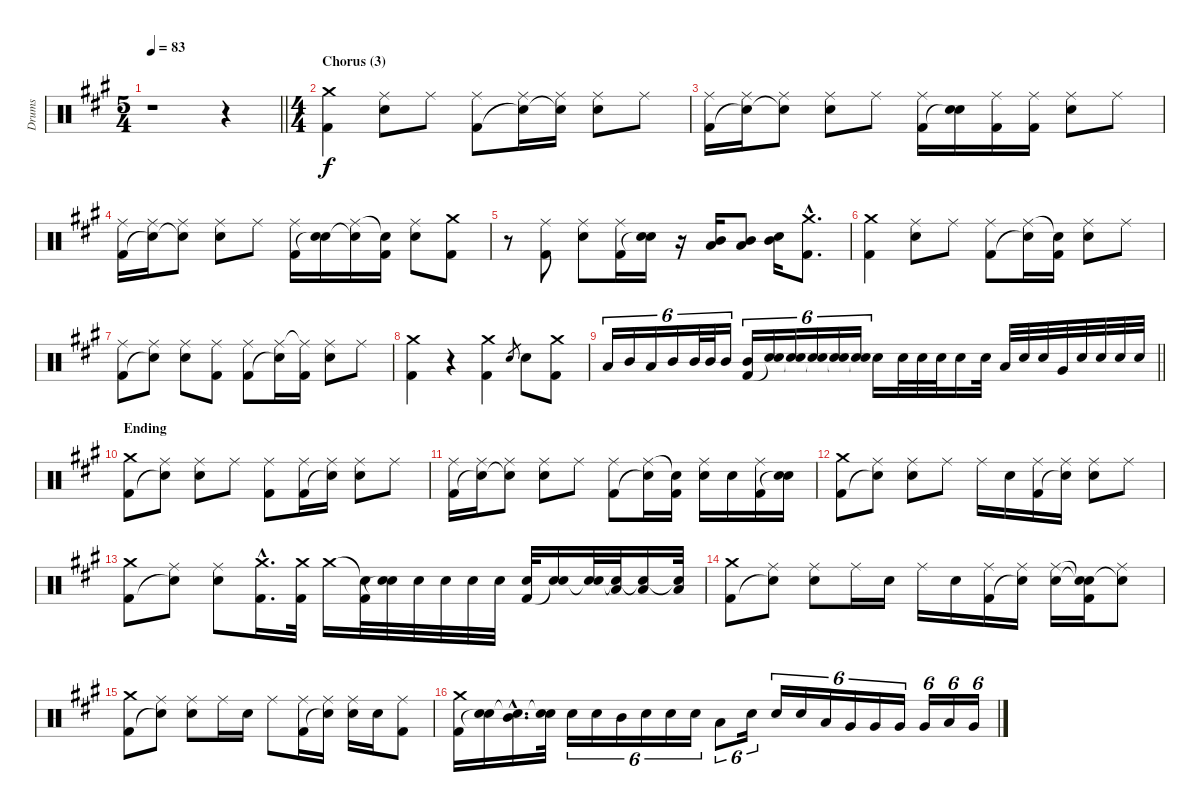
\track ("Drums" "Drums") {instrument percussion}
\staff {score}
\articulation defaults
\ts (5 4)
\tempo 83
\clef neutral
\barLineRight lightlight
\ks f#minor
r.1{dy f} r.4 |
\ts (4 4)
\section ("" "Chorus (3)")
("Crash medium (hit)" "Kick (hit) 2").4 ("Ride (middle)" "Electric Snare (hit)").8 "Ride (middle)".8 ("Ride (middle)" "Kick (hit) 2").8 ("Ride (middle)" "Snare (hit)"{t}).16 ("Ride (middle)" "Snare (hit)"{t}).16 ("Ride (middle)" "Electric Snare (hit)").8 "Ride (middle)".8 |
("Ride (middle)" "Kick (hit) 2").16 ("Ride (middle)" "Snare (hit)"{t}).16 ("Ride (middle)" "Snare (hit)"{t}).8 ("Ride (middle)" "Electric Snare (hit)").8 "Ride (middle)".8 ("Ride (middle)" "Kick (hit) 2").16 ("Electric Snare (hit)" "Snare (hit)"{t}).16 ("Ride (middle)" "Kick (hit) 2").16 ("Ride (middle)" "Kick (hit) 2").16 ("Ride (middle)" "Electric Snare (hit)").8 "Ride (middle)".8 |
("Ride (middle)" "Kick (hit) 2").16 ("Ride (middle)" "Snare (hit)"{t}).16 ("Ride (middle)" "Snare (hit)"{t}).8 ("Ride (middle)" "Electric Snare (hit)").8 "Ride (middle)".8 ("Ride (middle)" "Kick (hit) 2").16 ("Electric Snare (hit)" "Snare (hit)"{t}).16 ("Ride (middle)" "Snare (hit)"{t}).16 ("Snare (hit)"{t} "Kick (hit) 2").16 ("Ride (middle)" "Electric Snare (hit)").8 ("Crash medium (hit)" "Kick (hit) 2").8 |
r.8 ("Ride (middle)" "Kick (hit) 2").8 ("Ride (middle)" "Electric Snare (hit)").8 ("Ride (middle)" "Kick (hit) 2").16 ("Electric Snare (hit)" "Snare (hit)"{t}).16 r.16 ("Mid Tom (hit)" "Low Tom (hit)").16 ("Mid Tom (hit)" "Low Tom (hit)").8 ("Electric Snare (hit)" "Mid Tom (hit)").16 ("Crash medium (hit)"{hac} "Kick (hit) 2"{hac}).8{d} |
("Crash medium (hit)" "Kick (hit) 2").4 ("Ride (middle)" "Electric Snare (hit)").8 "Ride (middle)".8 ("Ride (middle)" "Kick (hit) 2").8 ("Ride (middle)" "Snare (hit)"{t}).16 ("Snare (hit)"{t} "Kick (hit) 2").16 ("Ride (middle)" "Electric Snare (hit)").8 "Ride (middle)".8 |
("Ride (middle)" "Kick (hit) 2").8 ("Ride (middle)" "Snare (hit)"{t}).8 ("Ride (middle)" "Electric Snare (hit)").8 ("Ride (middle)" "Kick (hit) 2").8 ("Ride (middle)" "Kick (hit) 2").8 ("Ride (middle)" "Snare (hit)"{t}).16 ("Ride (middle)"{t} "Kick (hit) 2").16 ("Ride (middle)" "Electric Snare (hit)").8 "Ride (middle)".8 |
("Crash medium (hit)" "Kick (hit) 2").4 r.4 ("Crash medium (hit)" "Kick (hit) 2").4 "Electric Snare (hit)".8{gr} "Electric Snare (hit)".8 ("Crash medium (hit)" "Kick (hit) 2").8 |
\barLineRight lightlight "Low Tom (hit)".16{tu (6 4)} "Mid Tom (hit)".16{tu (6 4)} "Low Tom (hit)".16{tu (6 4)} "Mid Tom (hit)".16{tu (6 4)} "Mid Tom (hit)".32{tu (6 4)} "Mid Tom (hit)".32{tu (6 4)} "Mid Tom (hit)".16{tu (6 4)}
("Mid Tom (hit)" "Kick (hit) 2").16{tu (6 4)} ("Electric Snare (hit)" "Snare (hit)"{t}).16{tu (6 4)} ("Electric Snare (hit)" "Snare (hit)"{t}).16{tu (6 4)} ("Electric Snare (hit)" "Snare (hit)"{t}).16{tu (6 4)} ("Electric Snare (hit)" "Snare (hit)"{t}).16{tu (6 4)} ("Electric Snare (hit)" "Snare (hit)"{t}).16{tu (6 4)} "Electric Snare (hit)".16 "Electric Snare (hit)".32 "Electric Snare (hit)".32 "Electric Snare (hit)".32 "Electric Snare (hit)".16 "Electric Snare (hit)".32 "Low Tom (hit)".32 "Electric Snare (hit)".32 "Electric Snare (hit)".32 "Very Low Tom (hit)".32 "Electric Snare (hit)".32 "Electric Snare (hit)".32 "Electric Snare (hit)".32 "Electric Snare (hit)".32 |
\section ("" "Ending")
("Crash medium (hit)" "Kick (hit) 2").8 ("Ride (middle)" "Snare (hit)"{t}).8 ("Ride (middle)" "Electric Snare (hit)").8 "Ride (middle)".8 ("Ride (middle)" "Kick (hit) 2").8 ("Ride (middle)" "Kick (hit) 2").16 ("Ride (middle)" "Snare (hit)"{t}).16 ("Ride (middle)" "Electric Snare (hit)").8 "Ride (middle)".8 |
("Ride (middle)" "Kick (hit) 2").16 ("Ride (middle)" "Snare (hit)"{t}).16 ("Ride (middle)" "Snare (hit)"{t}).8 ("Ride (middle)" "Electric Snare (hit)").8 "Ride (middle)".8 ("Ride (middle)" "Kick (hit) 2").8 ("Ride (middle)" "Snare (hit)"{t}).16 ("Snare (hit)"{t} "Kick (hit) 2").16 ("Ride (middle)" "Electric Snare (hit)").16 "Electric Snare (hit)".16 ("Ride (middle)" "Kick (hit) 2").16 ("Electric Snare (hit)" "Snare (hit)"{t}).16 |
("Crash medium (hit)" "Kick (hit) 2").8 ("Ride (middle)" "Snare (hit)"{t}).8 ("Ride (middle)" "Electric Snare (hit)").8 "Ride (middle)".8 "Ride (middle)".16 "Electric Snare (hit)".16 ("Ride (middle)" "Kick (hit) 2").16 ("Ride (middle)" "Snare (hit)"{t}).16 ("Ride (middle)" "Electric Snare (hit)").8 "Ride (middle)".8 |
("Crash medium (hit)" "Kick (hit) 2").8 ("Ride (middle)" "Snare (hit)"{t}).8 ("Ride (middle)" "Electric Snare (hit)").8 ("Crash medium (hit)"{hac} "Kick (hit) 2"{hac}).16{d} ("Crash medium (hit)" "Kick (hit) 2").32 "Crash medium (hit)".16 ("Snare (hit)"{t} "Kick (hit) 2").32 ("Electric Snare (hit)" "Snare (hit)"{t}).32 "Electric Snare (hit)".32 "Electric Snare (hit)".32 "Electric Snare (hit)".32 "Electric Snare (hit)".32 ("Electric Snare (hit)" "Kick (hit) 2").32 ("Electric Snare (hit)" "Snare (hit)"{t}).16 ("Electric Snare (hit)" "Snare (hit)"{t}).32 ("Low Tom (hit)" "Snare (hit)"{t}).32 ("Low Tom (hit)" "Snare (hit)"{t}).16 ("Low Tom (hit)" "Snare (hit)"{t}).32 |
("Crash medium (hit)" "Kick (hit) 2").8 ("Ride (middle)" "Snare (hit)"{t}).8 ("Ride (middle)" "Electric Snare (hit)").8 "Ride (middle)".16 "Electric Snare (hit)".16 "Ride (middle)".16 "Electric Snare (hit)".16 ("Ride (middle)" "Kick (hit) 2").16 ("Ride (middle)" "Snare (hit)"{t}).16 ("Ride (middle)" "Electric Snare (hit)").16 ("Snare (hit)"{t} "Snare (hit)"{t} "Kick (hit) 2").16 ("Ride (middle)" "Snare (hit)"{t}).8 |
("Crash medium (hit)" "Kick (hit) 2").8 ("Ride (middle)" "Snare (hit)"{t}).8 ("Ride (middle)" "Electric Snare (hit)").8 "Ride (middle)".16 "Electric Snare (hit)".16 "Ride (middle)".8 ("Ride (middle)" "Kick (hit) 2").16 ("Ride (middle)" "Snare (hit)"{t}).16 ("Ride (middle)" "Electric Snare (hit)").16 "Electric Snare (hit)".16 ("Ride (middle)" "Kick (hit) 2").8 |
("Crash medium (hit)" "Kick (hit) 2").16 ("Electric Snare (hit)" "Snare (hit)"{t}).16 ("Mid Tom (hit)"{hac} "Snare (hit)"{hac t}).16{d} ("Electric Snare (hit)" "Snare (hit)"{t}).32 "Electric Snare (hit)".16{tu (6 4)} "Electric Snare (hit)".16{tu (6 4)} "Mid Tom (hit)".16{tu (6 4)} "Electric Snare (hit)".16{tu (6 4)} "Electric Snare (hit)".16{tu (6 4)} "Electric Snare (hit)".16{tu (6 4)} "Low Tom (hit)".8{tu (6 4)} "Electric Snare (hit)".16{tu (6 4)} "Electric Snare (hit)".16{tu (6 4)} "Electric Snare (hit)".16{tu (6 4)} "Low Tom (hit)".16{tu (6 4)} "Very Low Tom (hit)".16{tu (6 4)} "Very Low Tom (hit)".16{tu (6 4)} "Very Low Tom (hit)".16{tu (6 4)} "Very Low Tom (hit)".16{tu (6 4)} "Low Floor Tom (hit)".16{tu (6 4)} "Very Low Tom (hit)".16{tu (6 4)}
